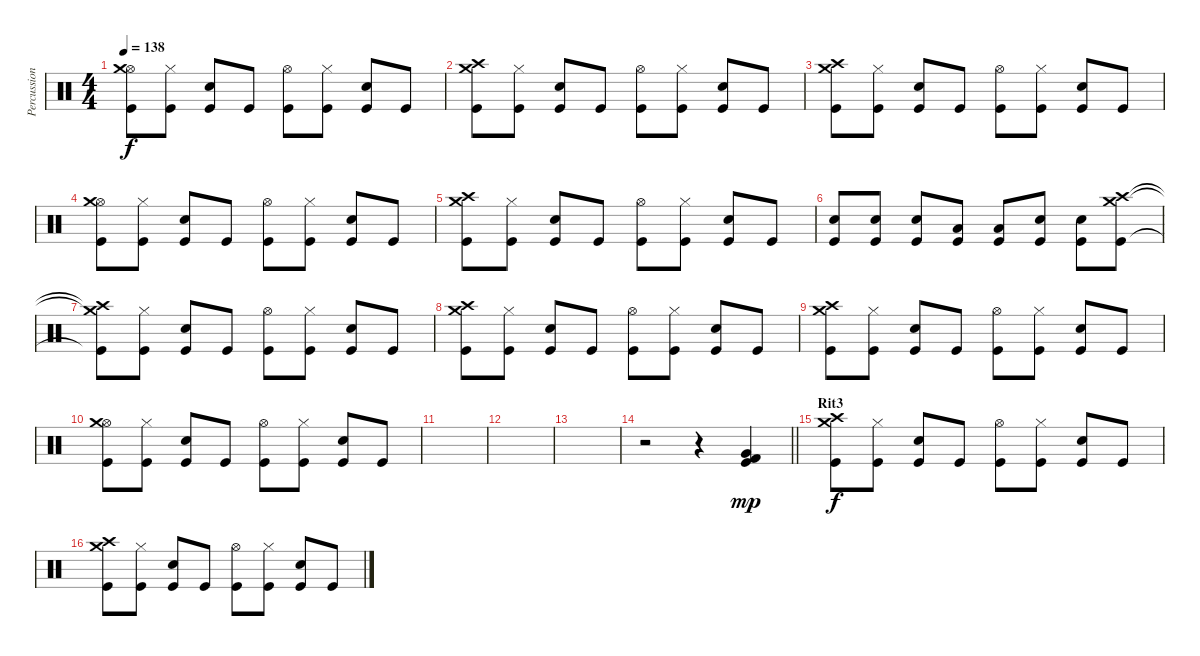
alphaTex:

\track ("Percussioni" "Percussion") {instrument percussion}
\staff {score}
\articulation defaults
\ts (4 4)
\tempo 138
\clef neutral
\ks c
("Kick (hit)" "Hi-Hat (open)" "Crash medium (hit)").8{dy f} ("Hi-Hat (closed)" "Kick (hit)").8 ("Electric Snare (hit)" "Kick (hit)").8 "Kick (hit)".8 ("Hi-Hat (open)" "Kick (hit)").8 ("Hi-Hat (closed)" "Kick (hit)").8 ("Electric Snare (hit)" "Kick (hit)").8 "Kick (hit)".8 |
("Kick (hit)" "Crash high (hit)" "Crash medium (hit)").8 ("Hi-Hat (closed)" "Kick (hit)").8 ("Electric Snare (hit)" "Kick (hit)").8 "Kick (hit)".8 ("Hi-Hat (open)" "Kick (hit)").8 ("Hi-Hat (closed)" "Kick (hit)").8 ("Electric Snare (hit)" "Kick (hit)").8 "Kick (hit)".8 |
("Kick (hit)" "Crash high (hit)" "Crash medium (hit)").8 ("Hi-Hat (closed)" "Kick (hit)").8 ("Electric Snare (hit)" "Kick (hit)").8 "Kick (hit)".8 ("Hi-Hat (open)" "Kick (hit)").8 ("Hi-Hat (closed)" "Kick (hit)").8 ("Electric Snare (hit)" "Kick (hit)").8 "Kick (hit)".8 |
("Kick (hit)" "Hi-Hat (open)" "Crash medium (hit)").8 ("Hi-Hat (closed)" "Kick (hit)").8 ("Electric Snare (hit)" "Kick (hit)").8 "Kick (hit)".8 ("Hi-Hat (open)" "Kick (hit)").8 ("Hi-Hat (closed)" "Kick (hit)").8 ("Electric Snare (hit)" "Kick (hit)").8 "Kick (hit)".8 |
("Kick (hit)" "Crash high (hit)" "Crash medium (hit)").8 ("Hi-Hat (closed)" "Kick (hit)").8 ("Electric Snare (hit)" "Kick (hit)").8 "Kick (hit)".8 ("Hi-Hat (open)" "Kick (hit)").8 ("Hi-Hat (closed)" "Kick (hit)").8 ("Electric Snare (hit)" "Kick (hit)").8 "Kick (hit)".8 |
("Electric Snare (hit)" "Kick (hit)").8 ("Electric Snare (hit)" "Kick (hit)").8 ("Electric Snare (hit)" "Kick (hit)").8 ("Low Floor Tom (hit)" "Kick (hit)").8 ("Low Floor Tom (hit)" "Kick (hit)").8 ("Electric Snare (hit)" "Kick (hit)").8 ("Electric Snare (hit)" "Kick (hit)").8 ("Kick (hit)" "Crash high (hit)" "Crash medium (hit)").8 |
("Kick (hit)"{t} "Crash high (hit)"{t} "Crash medium (hit)"{t}).8 ("Hi-Hat (closed)" "Kick (hit)").8 ("Electric Snare (hit)" "Kick (hit)").8 "Kick (hit)".8 ("Hi-Hat (open)" "Kick (hit)").8 ("Hi-Hat (closed)" "Kick (hit)").8 ("Electric Snare (hit)" "Kick (hit)").8 "Kick (hit)".8 |
("Kick (hit)" "Crash high (hit)" "Crash medium (hit)").8 ("Hi-Hat (closed)" "Kick (hit)").8 ("Electric Snare (hit)" "Kick (hit)").8 "Kick (hit)".8 ("Hi-Hat (open)" "Kick (hit)").8 ("Hi-Hat (closed)" "Kick (hit)").8 ("Electric Snare (hit)" "Kick (hit)").8 "Kick (hit)".8 |
("Kick (hit)" "Crash high (hit)" "Crash medium (hit)").8 ("Hi-Hat (closed)" "Kick (hit)").8 ("Electric Snare (hit)" "Kick (hit)").8 "Kick (hit)".8 ("Hi-Hat (open)" "Kick (hit)").8 ("Hi-Hat (closed)" "Kick (hit)").8 ("Electric Snare (hit)" "Kick (hit)").8 "Kick (hit)".8 |
("Kick (hit)" "Hi-Hat (open)" "Crash medium (hit)").8 ("Hi-Hat (closed)" "Kick (hit)").8 ("Electric Snare (hit)" "Kick (hit)").8 "Kick (hit)".8 ("Hi-Hat (open)" "Kick (hit)").8 ("Hi-Hat (closed)" "Kick (hit)").8 ("Electric Snare (hit)" "Kick (hit)").8 "Kick (hit)".8 |
|
|
|
\barLineRight lightlight
r.2 r.4 ("Kick (hit) 2" "Kick (hit)" "Very Low Tom (hit)").4{dy mp} |
\section ("" "Rit3")
("Kick (hit)" "Crash high (hit)" "Crash medium (hit)").8{dy f} ("Hi-Hat (closed)" "Kick (hit)").8 ("Electric Snare (hit)" "Kick (hit)").8 "Kick (hit)".8 ("Hi-Hat (open)" "Kick (hit)").8 ("Hi-Hat (closed)" "Kick (hit)").8 ("Electric Snare (hit)" "Kick (hit)").8 "Kick (hit)".8 |
("Kick (hit)" "Crash high (hit)" "Crash medium (hit)").8 ("Hi-Hat (closed)" "Kick (hit)").8 ("Electric Snare (hit)" "Kick (hit)").8 "Kick (hit)".8 ("Hi-Hat (open)" "Kick (hit)").8 ("Hi-Hat (closed)" "Kick (hit)").8 ("Electric Snare (hit)" "Kick (hit)").8 "Kick (hit)".8
